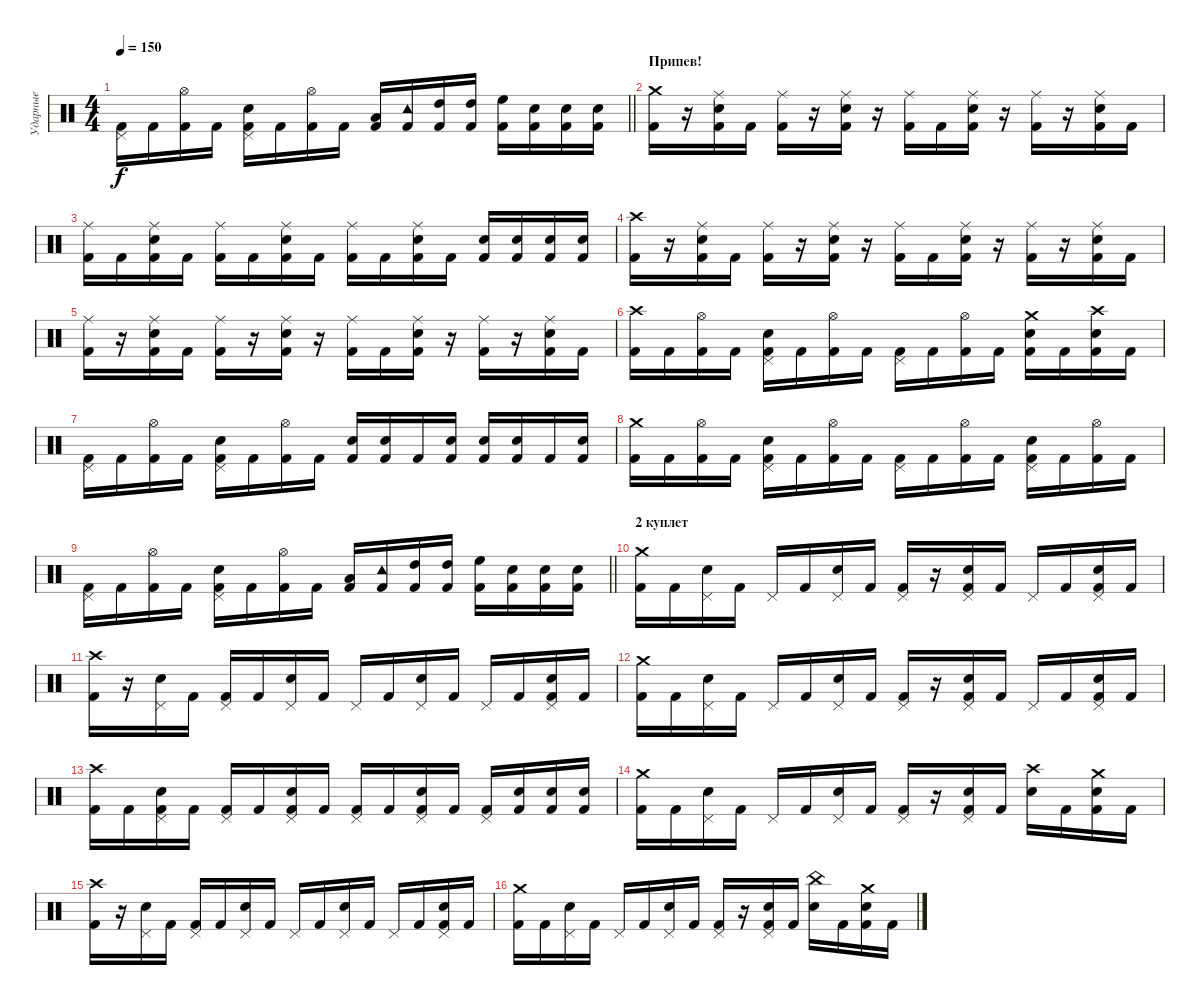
\track ("Ударные" "Ударные") {instrument percussion}
\staff {score}
\articulation defaults
\ts (4 4)
\tempo 150
\clef neutral
\barLineRight lightlight
\ks c
("Pedal Hi-Hat (hit)" "Kick (hit) 2").16{dy f} "Kick (hit) 2".16 ("Hi-Hat (open)" "Kick (hit) 2").16 "Kick (hit) 2".16 ("Pedal Hi-Hat (hit)" "Snare (hit) 2" "Kick (hit) 2").16 "Kick (hit) 2".16 ("Hi-Hat (open)" "Kick (hit) 2").16 "Kick (hit) 2".16 ("Low Tom (hit)" "Kick (hit) 2").16 ("Tambourine (hit)" "Kick (hit) 2").16 ("High Tom (hit)" "Kick (hit) 2").16 ("High Tom (hit)" "Kick (hit) 2").16 ("High Floor Tom (hit)" "Kick (hit) 2").16 ("Snare (hit) 2" "Kick (hit) 2").16 ("Snare (hit) 2" "Kick (hit) 2").16 ("Snare (hit) 2" "Kick (hit) 2").16 |
\section ("" "Припев!")
("Crash medium (hit)" "Kick (hit) 2").16 r.16 ("Ride (middle)" "Snare (hit) 2" "Kick (hit) 2").16 "Kick (hit) 2".16 ("Ride (middle)" "Kick (hit) 2").16 r.16 ("Ride (middle)" "Snare (hit) 2" "Kick (hit) 2").16 r.16 ("Ride (middle)" "Kick (hit) 2").16 "Kick (hit) 2".16 ("Ride (middle)" "Snare (hit) 2" "Kick (hit) 2").16 r.16 ("Ride (middle)" "Kick (hit) 2").16 r.16 ("Ride (middle)" "Snare (hit) 2" "Kick (hit) 2").16 "Kick (hit) 2".16 |
("Ride (middle)" "Kick (hit) 2").16 "Kick (hit) 2".16 ("Ride (middle)" "Snare (hit) 2" "Kick (hit) 2").16 "Kick (hit) 2".16 ("Ride (middle)" "Kick (hit) 2").16 "Kick (hit) 2".16 ("Ride (middle)" "Snare (hit) 2" "Kick (hit) 2").16 "Kick (hit) 2".16 ("Ride (middle)" "Kick (hit) 2").16 "Kick (hit) 2".16 ("Ride (middle)" "Snare (hit) 2" "Kick (hit) 2").16 "Kick (hit) 2".16 ("Snare (hit) 2" "Kick (hit) 2").16 ("Snare (hit) 2" "Kick (hit) 2").16 ("Snare (hit) 2" "Kick (hit) 2").16 ("Snare (hit) 2" "Kick (hit) 2").16 |
("Crash high (hit)" "Kick (hit) 2").16 r.16 ("Ride (middle)" "Snare (hit) 2" "Kick (hit) 2").16 "Kick (hit) 2".16 ("Ride (middle)" "Kick (hit) 2").16 r.16 ("Ride (middle)" "Snare (hit) 2" "Kick (hit) 2").16 r.16 ("Ride (middle)" "Kick (hit) 2").16 "Kick (hit) 2".16 ("Ride (middle)" "Snare (hit) 2" "Kick (hit) 2").16 r.16 ("Ride (middle)" "Kick (hit) 2").16 r.16 ("Ride (middle)" "Snare (hit) 2" "Kick (hit) 2").16 "Kick (hit) 2".16 |
("Ride (middle)" "Kick (hit) 2").16 r.16 ("Ride (middle)" "Snare (hit) 2" "Kick (hit) 2").16 "Kick (hit) 2".16 ("Ride (middle)" "Kick (hit) 2").16 r.16 ("Ride (middle)" "Snare (hit) 2" "Kick (hit) 2").16 r.16 ("Ride (middle)" "Kick (hit) 2").16 "Kick (hit) 2".16 ("Ride (middle)" "Snare (hit) 2" "Kick (hit) 2").16 r.16 ("Ride (middle)" "Kick (hit) 2").16 r.16 ("Ride (middle)" "Snare (hit) 2" "Kick (hit) 2").16 "Kick (hit) 2".16 |
("Crash high (hit)" "Kick (hit) 2").16 "Kick (hit) 2".16 ("Hi-Hat (open)" "Kick (hit) 2").16 "Kick (hit) 2".16 ("Pedal Hi-Hat (hit)" "Snare (hit) 2" "Kick (hit) 2").16 "Kick (hit) 2".16 ("Hi-Hat (open)" "Kick (hit) 2").16 "Kick (hit) 2".16 ("Pedal Hi-Hat (hit)" "Kick (hit) 2").16 "Kick (hit) 2".16 ("Hi-Hat (open)" "Kick (hit) 2").16 "Kick (hit) 2".16 ("Crash medium (hit)" "Snare (hit) 2" "Kick (hit) 2").16 "Kick (hit) 2".16 ("Crash high (hit)" "Snare (hit) 2" "Kick (hit) 2").16 "Kick (hit) 2".16 |
("Pedal Hi-Hat (hit)" "Kick (hit) 2").16 "Kick (hit) 2".16 ("Hi-Hat (open)" "Kick (hit) 2").16 "Kick (hit) 2".16 ("Pedal Hi-Hat (hit)" "Snare (hit) 2" "Kick (hit) 2").16 "Kick (hit) 2".16 ("Hi-Hat (open)" "Kick (hit) 2").16 "Kick (hit) 2".16 ("Snare (hit) 2" "Kick (hit) 2").16 ("Snare (hit) 2" "Kick (hit) 2").16 "Kick (hit) 2".16 ("Snare (hit) 2" "Kick (hit) 2").16 ("Snare (hit) 2" "Kick (hit) 2").16 ("Snare (hit) 2" "Kick (hit) 2").16 "Kick (hit) 2".16 ("Snare (hit) 2" "Kick (hit) 2").16 |
("Crash medium (hit)" "Kick (hit) 2").16 "Kick (hit) 2".16 ("Hi-Hat (open)" "Kick (hit) 2").16 "Kick (hit) 2".16 ("Pedal Hi-Hat (hit)" "Snare (hit) 2" "Kick (hit) 2").16 "Kick (hit) 2".16 ("Hi-Hat (open)" "Kick (hit) 2").16 "Kick (hit) 2".16 ("Pedal Hi-Hat (hit)" "Kick (hit) 2").16 "Kick (hit) 2".16 ("Hi-Hat (open)" "Kick (hit) 2").16 "Kick (hit) 2".16 ("Pedal Hi-Hat (hit)" "Snare (hit) 2" "Kick (hit) 2").16 "Kick (hit) 2".16 ("Hi-Hat (open)" "Kick (hit) 2").16 "Kick (hit) 2".16 |
\barLineRight lightlight
("Pedal Hi-Hat (hit)" "Kick (hit) 2").16 "Kick (hit) 2".16 ("Hi-Hat (open)" "Kick (hit) 2").16 "Kick (hit) 2".16 ("Pedal Hi-Hat (hit)" "Snare (hit) 2" "Kick (hit) 2").16 "Kick (hit) 2".16 ("Hi-Hat (open)" "Kick (hit) 2").16 "Kick (hit) 2".16 ("Low Tom (hit)" "Kick (hit) 2").16 ("Tambourine (hit)" "Kick (hit) 2").16 ("High Tom (hit)" "Kick (hit) 2").16 ("High Tom (hit)" "Kick (hit) 2").16 ("High Floor Tom (hit)" "Kick (hit) 2").16 ("Snare (hit) 2" "Kick (hit) 2").16 ("Snare (hit) 2" "Kick (hit) 2").16 ("Snare (hit) 2" "Kick (hit) 2").16 |
\section ("" "2 куплет")
("Crash medium (hit)" "Kick (hit) 2").16 "Kick (hit) 2".16 ("Pedal Hi-Hat (hit)" "Snare (hit) 2").16 "Kick (hit) 2".16 "Pedal Hi-Hat (hit)".16 "Kick (hit) 2".16 ("Pedal Hi-Hat (hit)" "Snare (hit) 2").16 "Kick (hit) 2".16 ("Pedal Hi-Hat (hit)" "Kick (hit) 2").16 r.16 ("Pedal Hi-Hat (hit)" "Snare (hit) 2" "Kick (hit) 2").16 "Kick (hit) 2".16 "Pedal Hi-Hat (hit)".16 "Kick (hit) 2".16 ("Pedal Hi-Hat (hit)" "Snare (hit) 2" "Kick (hit) 2").16 "Kick (hit) 2".16 |
("Crash high (hit)" "Kick (hit) 2").16 r.16 ("Pedal Hi-Hat (hit)" "Snare (hit) 2").16 "Kick (hit) 2".16 ("Pedal Hi-Hat (hit)" "Kick (hit) 2").16 "Kick (hit) 2".16 ("Pedal Hi-Hat (hit)" "Snare (hit) 2").16 "Kick (hit) 2".16 "Pedal Hi-Hat (hit)".16 "Kick (hit) 2".16 ("Pedal Hi-Hat (hit)" "Snare (hit) 2").16 "Kick (hit) 2".16 "Pedal Hi-Hat (hit)".16 "Kick (hit) 2".16 ("Pedal Hi-Hat (hit)" "Snare (hit) 2" "Kick (hit) 2").16 "Kick (hit) 2".16 |
("Crash medium (hit)" "Kick (hit) 2").16 "Kick (hit) 2".16 ("Pedal Hi-Hat (hit)" "Snare (hit) 2").16 "Kick (hit) 2".16 "Pedal Hi-Hat (hit)".16 "Kick (hit) 2".16 ("Pedal Hi-Hat (hit)" "Snare (hit) 2").16 "Kick (hit) 2".16 ("Pedal Hi-Hat (hit)" "Kick (hit) 2").16 r.16 ("Pedal Hi-Hat (hit)" "Snare (hit) 2" "Kick (hit) 2").16 "Kick (hit) 2".16 "Pedal Hi-Hat (hit)".16 "Kick (hit) 2".16 ("Pedal Hi-Hat (hit)" "Snare (hit) 2" "Kick (hit) 2").16 "Kick (hit) 2".16 |
("Crash high (hit)" "Kick (hit) 2").16 "Kick (hit) 2".16 ("Pedal Hi-Hat (hit)" "Snare (hit) 2" "Kick (hit) 2").16 "Kick (hit) 2".16 ("Pedal Hi-Hat (hit)" "Kick (hit) 2").16 "Kick (hit) 2".16 ("Pedal Hi-Hat (hit)" "Snare (hit) 2" "Kick (hit) 2").16 "Kick (hit) 2".16 ("Pedal Hi-Hat (hit)" "Kick (hit) 2").16 "Kick (hit) 2".16 ("Pedal Hi-Hat (hit)" "Snare (hit) 2" "Kick (hit) 2").16 "Kick (hit) 2".16 ("Pedal Hi-Hat (hit)" "Kick (hit) 2").16 ("Snare (hit) 2" "Kick (hit) 2").16 ("Snare (hit) 2" "Kick (hit) 2").16 ("Snare (hit) 2" "Kick (hit) 2").16 |
("Crash medium (hit)" "Kick (hit) 2").16 "Kick (hit) 2".16 ("Pedal Hi-Hat (hit)" "Snare (hit) 2").16 "Kick (hit) 2".16 "Pedal Hi-Hat (hit)".16 "Kick (hit) 2".16 ("Pedal Hi-Hat (hit)" "Snare (hit) 2").16 "Kick (hit) 2".16 ("Pedal Hi-Hat (hit)" "Kick (hit) 2").16 r.16 ("Pedal Hi-Hat (hit)" "Snare (hit) 2" "Kick (hit) 2").16 "Kick (hit) 2".16 ("Crash high (hit)" "Snare (hit) 2").16 "Kick (hit) 2".16 ("Crash medium (hit)" "Snare (hit) 2" "Kick (hit) 2").16 "Kick (hit) 2".16 |
("Crash high (hit)" "Kick (hit) 2").16 r.16 ("Pedal Hi-Hat (hit)" "Snare (hit) 2").16 "Kick (hit) 2".16 ("Pedal Hi-Hat (hit)" "Kick (hit) 2").16 "Kick (hit) 2".16 ("Pedal Hi-Hat (hit)" "Snare (hit) 2").16 "Kick (hit) 2".16 "Pedal Hi-Hat (hit)".16 "Kick (hit) 2".16 ("Pedal Hi-Hat (hit)" "Snare (hit) 2").16 "Kick (hit) 2".16 "Pedal Hi-Hat (hit)".16 "Kick (hit) 2".16 ("Pedal Hi-Hat (hit)" "Snare (hit) 2" "Kick (hit) 2").16 "Kick (hit) 2".16 |
("Crash medium (hit)" "Kick (hit) 2").16 "Kick (hit) 2".16 ("Pedal Hi-Hat (hit)" "Snare (hit) 2").16 "Kick (hit) 2".16 "Pedal Hi-Hat (hit)".16 "Kick (hit) 2".16 ("Pedal Hi-Hat (hit)" "Snare (hit) 2").16 "Kick (hit) 2".16 ("Pedal Hi-Hat (hit)" "Kick (hit) 2").16 r.16 ("Pedal Hi-Hat (hit)" "Snare (hit) 2" "Kick (hit) 2").16 "Kick (hit) 2".16 ("China (hit)" "Snare (hit) 2").16 "Kick (hit) 2".16 ("Crash medium (hit)" "Snare (hit) 2" "Kick (hit) 2").16 "Kick (hit) 2".16
